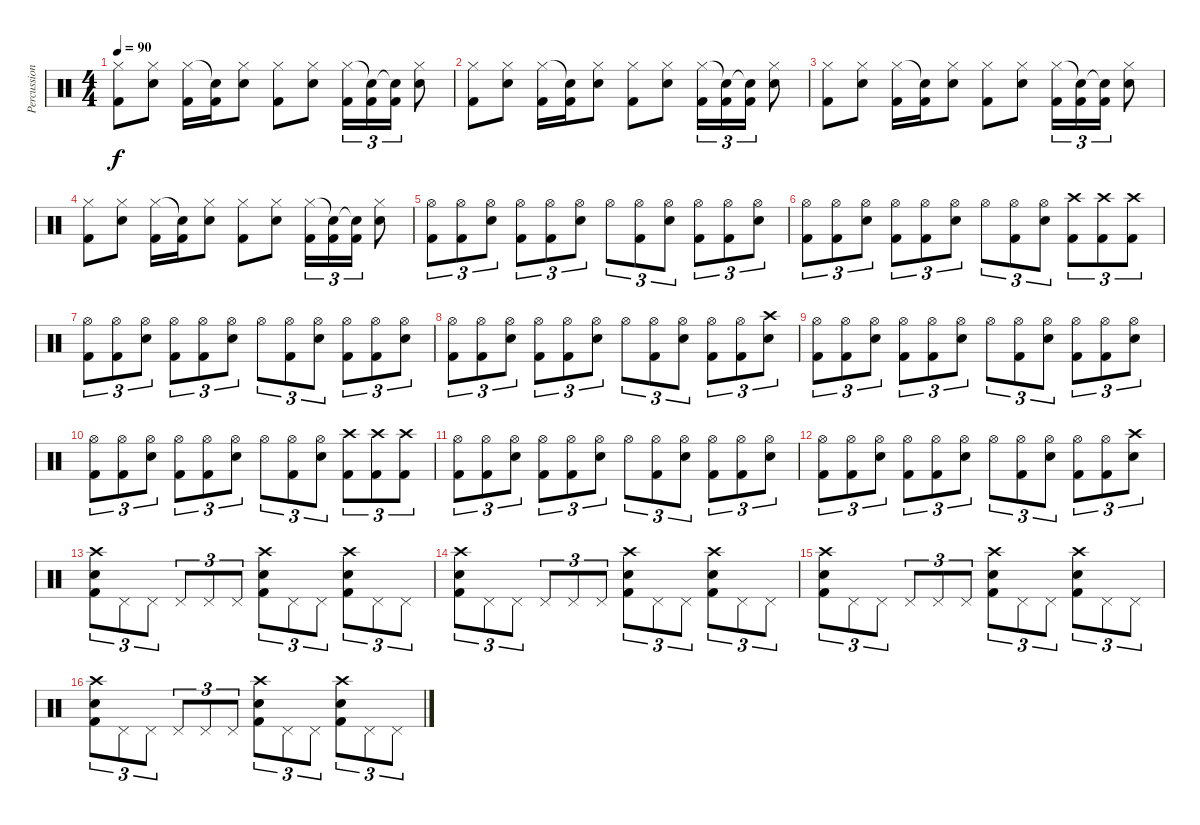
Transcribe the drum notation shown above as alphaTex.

\track ("Percussion" "Percussion") {instrument percussion}
\staff {score}
\articulation defaults
\ts (4 4)
\tempo 90
\clef neutral
\ks c
("Hi-Hat (closed)" "Kick (hit) 2").8{dy f} ("Hi-Hat (closed)" "Electric Snare (hit)").8 ("Hi-Hat (closed)" "Kick (hit) 2").16 ("Snare (hit)"{t} "Kick (hit) 2").16 ("Hi-Hat (closed)" "Electric Snare (hit)").8 ("Hi-Hat (closed)" "Kick (hit) 2").8 ("Hi-Hat (closed)" "Electric Snare (hit)").8 ("Hi-Hat (closed)" "Kick (hit) 2").16{tu (3 2)} ("Snare (hit)"{t} "Kick (hit) 2").16{tu (3 2)} ("Snare (hit)"{t} "Kick (hit) 2").16{tu (3 2)} ("Hi-Hat (closed)" "Electric Snare (hit)").8 |
("Hi-Hat (closed)" "Kick (hit) 2").8 ("Hi-Hat (closed)" "Electric Snare (hit)").8 ("Hi-Hat (closed)" "Kick (hit) 2").16 ("Snare (hit)"{t} "Kick (hit) 2").16 ("Hi-Hat (closed)" "Electric Snare (hit)").8 ("Hi-Hat (closed)" "Kick (hit) 2").8 ("Hi-Hat (closed)" "Electric Snare (hit)").8 ("Hi-Hat (closed)" "Kick (hit) 2").16{tu (3 2)} ("Snare (hit)"{t} "Kick (hit) 2").16{tu (3 2)} ("Snare (hit)"{t} "Kick (hit) 2").16{tu (3 2)} ("Hi-Hat (closed)" "Electric Snare (hit)").8 |
("Hi-Hat (closed)" "Kick (hit) 2").8 ("Hi-Hat (closed)" "Electric Snare (hit)").8 ("Hi-Hat (closed)" "Kick (hit) 2").16 ("Snare (hit)"{t} "Kick (hit) 2").16 ("Hi-Hat (closed)" "Electric Snare (hit)").8 ("Hi-Hat (closed)" "Kick (hit) 2").8 ("Hi-Hat (closed)" "Electric Snare (hit)").8 ("Hi-Hat (closed)" "Kick (hit) 2").16{tu (3 2)} ("Snare (hit)"{t} "Kick (hit) 2").16{tu (3 2)} ("Snare (hit)"{t} "Kick (hit) 2").16{tu (3 2)} ("Hi-Hat (closed)" "Electric Snare (hit)").8 |
("Hi-Hat (closed)" "Kick (hit) 2").8 ("Hi-Hat (closed)" "Electric Snare (hit)").8 ("Hi-Hat (closed)" "Kick (hit) 2").16 ("Snare (hit)"{t} "Kick (hit) 2").16 ("Hi-Hat (closed)" "Electric Snare (hit)").8 ("Hi-Hat (closed)" "Kick (hit) 2").8 ("Hi-Hat (closed)" "Electric Snare (hit)").8 ("Hi-Hat (closed)" "Kick (hit) 2").16{tu (3 2)} ("Snare (hit)"{t} "Kick (hit) 2").16{tu (3 2)} ("Snare (hit)"{t} "Kick (hit) 2").16{tu (3 2)} ("Hi-Hat (closed)" "Electric Snare (hit)").8 |
("Hi-Hat (open)" "Kick (hit) 2").8{tu (3 2)} ("Hi-Hat (open)" "Kick (hit) 2").8{tu (3 2)} ("Hi-Hat (open)" "Electric Snare (hit)").8{tu (3 2)} ("Hi-Hat (open)" "Kick (hit) 2").8{tu (3 2)} ("Hi-Hat (open)" "Kick (hit) 2").8{tu (3 2)} ("Hi-Hat (open)" "Electric Snare (hit)").8{tu (3 2)} "Hi-Hat (open)".8{tu (3 2)} ("Hi-Hat (open)" "Kick (hit) 2").8{tu (3 2)} ("Hi-Hat (open)" "Electric Snare (hit)").8{tu (3 2)} ("Hi-Hat (open)" "Kick (hit) 2").8{tu (3 2)} ("Hi-Hat (open)" "Kick (hit) 2").8{tu (3 2)} ("Hi-Hat (open)" "Electric Snare (hit)").8{tu (3 2)} |
("Hi-Hat (open)" "Kick (hit) 2").8{tu (3 2)} ("Hi-Hat (open)" "Kick (hit) 2").8{tu (3 2)} ("Hi-Hat (open)" "Electric Snare (hit)").8{tu (3 2)} ("Hi-Hat (open)" "Kick (hit) 2").8{tu (3 2)} ("Hi-Hat (open)" "Kick (hit) 2").8{tu (3 2)} ("Hi-Hat (open)" "Electric Snare (hit)").8{tu (3 2)} "Hi-Hat (open)".8{tu (3 2)} ("Hi-Hat (open)" "Kick (hit) 2").8{tu (3 2)} ("Hi-Hat (open)" "Electric Snare (hit)").8{tu (3 2)} ("Crash high (hit)" "Kick (hit) 2").8{tu (3 2)} ("Crash high (hit)" "Kick (hit) 2").8{tu (3 2)} ("Crash high (hit)" "Kick (hit) 2").8{tu (3 2)} |
("Hi-Hat (open)" "Kick (hit) 2").8{tu (3 2)} ("Hi-Hat (open)" "Kick (hit) 2").8{tu (3 2)} ("Hi-Hat (open)" "Electric Snare (hit)").8{tu (3 2)} ("Hi-Hat (open)" "Kick (hit) 2").8{tu (3 2)} ("Hi-Hat (open)" "Kick (hit) 2").8{tu (3 2)} ("Hi-Hat (open)" "Electric Snare (hit)").8{tu (3 2)} "Hi-Hat (open)".8{tu (3 2)} ("Hi-Hat (open)" "Kick (hit) 2").8{tu (3 2)} ("Hi-Hat (open)" "Electric Snare (hit)").8{tu (3 2)} ("Hi-Hat (open)" "Kick (hit) 2").8{tu (3 2)} ("Hi-Hat (open)" "Kick (hit) 2").8{tu (3 2)} ("Hi-Hat (open)" "Electric Snare (hit)").8{tu (3 2)} |
("Hi-Hat (open)" "Kick (hit) 2").8{tu (3 2)} ("Hi-Hat (open)" "Kick (hit) 2").8{tu (3 2)} ("Hi-Hat (open)" "Electric Snare (hit)").8{tu (3 2)} ("Hi-Hat (open)" "Kick (hit) 2").8{tu (3 2)} ("Hi-Hat (open)" "Kick (hit) 2").8{tu (3 2)} ("Hi-Hat (open)" "Electric Snare (hit)").8{tu (3 2)} "Hi-Hat (open)".8{tu (3 2)} ("Hi-Hat (open)" "Kick (hit) 2").8{tu (3 2)} ("Hi-Hat (open)" "Electric Snare (hit)").8{tu (3 2)} ("Hi-Hat (open)" "Kick (hit) 2").8{tu (3 2)} ("Hi-Hat (open)" "Kick (hit) 2").8{tu (3 2)} ("Crash high (hit)" "Electric Snare (hit)").8{tu (3 2)} |
("Hi-Hat (open)" "Kick (hit) 2").8{tu (3 2)} ("Hi-Hat (open)" "Kick (hit) 2").8{tu (3 2)} ("Hi-Hat (open)" "Electric Snare (hit)").8{tu (3 2)} ("Hi-Hat (open)" "Kick (hit) 2").8{tu (3 2)} ("Hi-Hat (open)" "Kick (hit) 2").8{tu (3 2)} ("Hi-Hat (open)" "Electric Snare (hit)").8{tu (3 2)} "Hi-Hat (open)".8{tu (3 2)} ("Hi-Hat (open)" "Kick (hit) 2").8{tu (3 2)} ("Hi-Hat (open)" "Electric Snare (hit)").8{tu (3 2)} ("Hi-Hat (open)" "Kick (hit) 2").8{tu (3 2)} ("Hi-Hat (open)" "Kick (hit) 2").8{tu (3 2)} ("Hi-Hat (open)" "Electric Snare (hit)").8{tu (3 2)} |
("Hi-Hat (open)" "Kick (hit) 2").8{tu (3 2)} ("Hi-Hat (open)" "Kick (hit) 2").8{tu (3 2)} ("Hi-Hat (open)" "Electric Snare (hit)").8{tu (3 2)} ("Hi-Hat (open)" "Kick (hit) 2").8{tu (3 2)} ("Hi-Hat (open)" "Kick (hit) 2").8{tu (3 2)} ("Hi-Hat (open)" "Electric Snare (hit)").8{tu (3 2)} "Hi-Hat (open)".8{tu (3 2)} ("Hi-Hat (open)" "Kick (hit) 2").8{tu (3 2)} ("Hi-Hat (open)" "Electric Snare (hit)").8{tu (3 2)} ("Crash high (hit)" "Kick (hit) 2").8{tu (3 2)} ("Crash high (hit)" "Kick (hit) 2").8{tu (3 2)} ("Crash high (hit)" "Kick (hit) 2").8{tu (3 2)} |
("Hi-Hat (open)" "Kick (hit) 2").8{tu (3 2)} ("Hi-Hat (open)" "Kick (hit) 2").8{tu (3 2)} ("Hi-Hat (open)" "Electric Snare (hit)").8{tu (3 2)} ("Hi-Hat (open)" "Kick (hit) 2").8{tu (3 2)} ("Hi-Hat (open)" "Kick (hit) 2").8{tu (3 2)} ("Hi-Hat (open)" "Electric Snare (hit)").8{tu (3 2)} "Hi-Hat (open)".8{tu (3 2)} ("Hi-Hat (open)" "Kick (hit) 2").8{tu (3 2)} ("Hi-Hat (open)" "Electric Snare (hit)").8{tu (3 2)} ("Hi-Hat (open)" "Kick (hit) 2").8{tu (3 2)} ("Hi-Hat (open)" "Kick (hit) 2").8{tu (3 2)} ("Hi-Hat (open)" "Electric Snare (hit)").8{tu (3 2)} |
("Hi-Hat (open)" "Kick (hit) 2").8{tu (3 2)} ("Hi-Hat (open)" "Kick (hit) 2").8{tu (3 2)} ("Hi-Hat (open)" "Electric Snare (hit)").8{tu (3 2)} ("Hi-Hat (open)" "Kick (hit) 2").8{tu (3 2)} ("Hi-Hat (open)" "Kick (hit) 2").8{tu (3 2)} ("Hi-Hat (open)" "Electric Snare (hit)").8{tu (3 2)} "Hi-Hat (open)".8{tu (3 2)} ("Hi-Hat (open)" "Kick (hit) 2").8{tu (3 2)} ("Hi-Hat (open)" "Electric Snare (hit)").8{tu (3 2)} ("Hi-Hat (open)" "Kick (hit) 2").8{tu (3 2)} ("Hi-Hat (open)" "Kick (hit) 2").8{tu (3 2)} ("Crash high (hit)" "Electric Snare (hit)").8{tu (3 2)} |
("Crash high (hit)" "Electric Snare (hit)" "Kick (hit) 2").8{tu (3 2)} "Pedal Hi-Hat (hit)".8{tu (3 2)} "Pedal Hi-Hat (hit)".8{tu (3 2)} "Pedal Hi-Hat (hit)".8{tu (3 2)} "Pedal Hi-Hat (hit)".8{tu (3 2)} "Pedal Hi-Hat (hit)".8{tu (3 2)} ("Crash high (hit)" "Electric Snare (hit)" "Kick (hit) 2").8{tu (3 2)} "Pedal Hi-Hat (hit)".8{tu (3 2)} "Pedal Hi-Hat (hit)".8{tu (3 2)} ("Crash high (hit)" "Electric Snare (hit)" "Kick (hit) 2").8{tu (3 2)} "Pedal Hi-Hat (hit)".8{tu (3 2)} "Pedal Hi-Hat (hit)".8{tu (3 2)} |
("Crash high (hit)" "Electric Snare (hit)" "Kick (hit) 2").8{tu (3 2)} "Pedal Hi-Hat (hit)".8{tu (3 2)} "Pedal Hi-Hat (hit)".8{tu (3 2)} "Pedal Hi-Hat (hit)".8{tu (3 2)} "Pedal Hi-Hat (hit)".8{tu (3 2)} "Pedal Hi-Hat (hit)".8{tu (3 2)} ("Crash high (hit)" "Electric Snare (hit)" "Kick (hit) 2").8{tu (3 2)} "Pedal Hi-Hat (hit)".8{tu (3 2)} "Pedal Hi-Hat (hit)".8{tu (3 2)} ("Crash high (hit)" "Electric Snare (hit)" "Kick (hit) 2").8{tu (3 2)} "Pedal Hi-Hat (hit)".8{tu (3 2)} "Pedal Hi-Hat (hit)".8{tu (3 2)} |
("Crash high (hit)" "Electric Snare (hit)" "Kick (hit) 2").8{tu (3 2)} "Pedal Hi-Hat (hit)".8{tu (3 2)} "Pedal Hi-Hat (hit)".8{tu (3 2)} "Pedal Hi-Hat (hit)".8{tu (3 2)} "Pedal Hi-Hat (hit)".8{tu (3 2)} "Pedal Hi-Hat (hit)".8{tu (3 2)} ("Crash high (hit)" "Electric Snare (hit)" "Kick (hit) 2").8{tu (3 2)} "Pedal Hi-Hat (hit)".8{tu (3 2)} "Pedal Hi-Hat (hit)".8{tu (3 2)} ("Crash high (hit)" "Electric Snare (hit)" "Kick (hit) 2").8{tu (3 2)} "Pedal Hi-Hat (hit)".8{tu (3 2)} "Pedal Hi-Hat (hit)".8{tu (3 2)} |
("Crash high (hit)" "Electric Snare (hit)" "Kick (hit) 2").8{tu (3 2)} "Pedal Hi-Hat (hit)".8{tu (3 2)} "Pedal Hi-Hat (hit)".8{tu (3 2)} "Pedal Hi-Hat (hit)".8{tu (3 2)} "Pedal Hi-Hat (hit)".8{tu (3 2)} "Pedal Hi-Hat (hit)".8{tu (3 2)} ("Crash high (hit)" "Electric Snare (hit)" "Kick (hit) 2").8{tu (3 2)} "Pedal Hi-Hat (hit)".8{tu (3 2)} "Pedal Hi-Hat (hit)".8{tu (3 2)} ("Crash high (hit)" "Electric Snare (hit)" "Kick (hit) 2").8{tu (3 2)} "Pedal Hi-Hat (hit)".8{tu (3 2)} "Pedal Hi-Hat (hit)".8{tu (3 2)}
